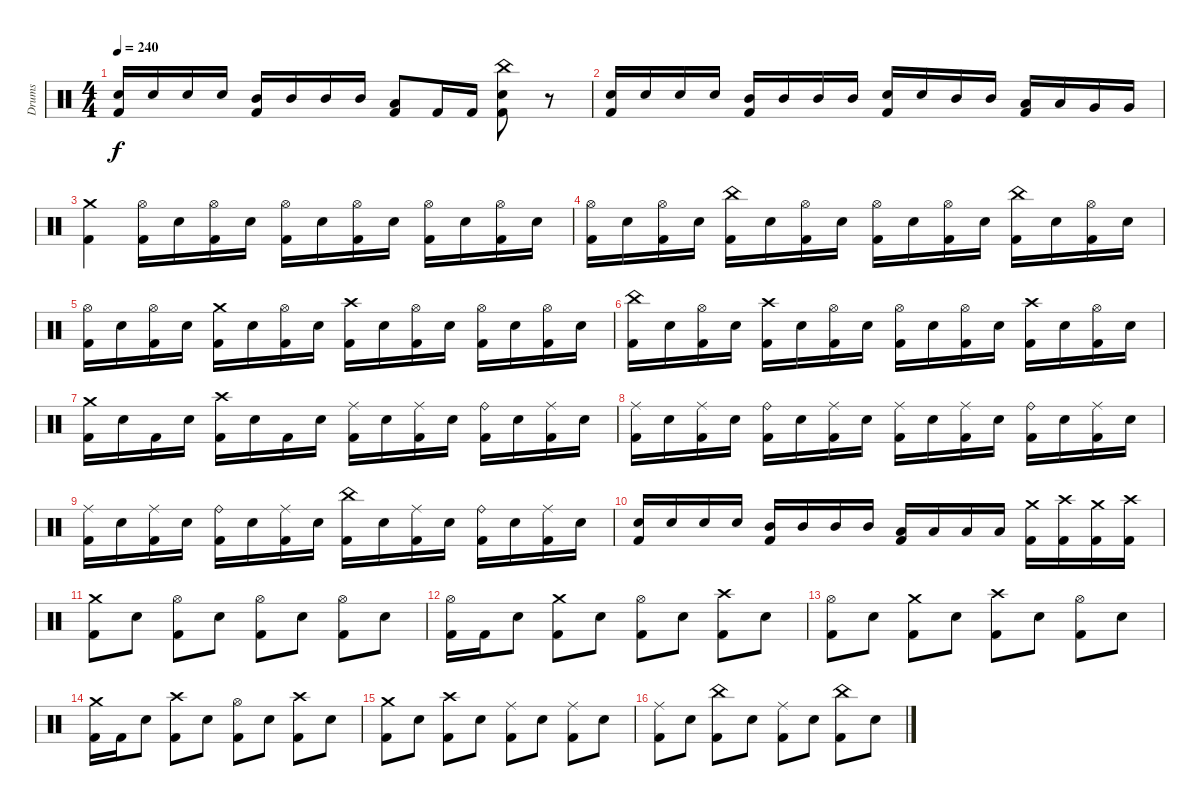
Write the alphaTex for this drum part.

\track ("Drums" "Drums") {instrument percussion}
\staff {score}
\articulation defaults
\ts (4 4)
\tempo 240
\clef neutral
\ks c
("Electric Snare (hit)" "Kick (hit) 2").16{dy f} "Electric Snare (hit)".16 "Electric Snare (hit)".16 "Electric Snare (hit)".16 ("Mid Tom (hit)" "Kick (hit) 2").16 "Mid Tom (hit)".16 "Mid Tom (hit)".16 "Mid Tom (hit)".16 ("Low Tom (hit)" "Kick (hit) 2").8 "Kick (hit) 2".16 "Kick (hit) 2".16 ("China (hit)" "Electric Snare (hit)" "Kick (hit) 2").8 r.8 |
("Electric Snare (hit)" "Kick (hit) 2").16 "Electric Snare (hit)".16 "Electric Snare (hit)".16 "Electric Snare (hit)".16 ("Mid Tom (hit)" "Kick (hit) 2").16 "Mid Tom (hit)".16 "Mid Tom (hit)".16 "Mid Tom (hit)".16 ("Electric Snare (hit)" "Kick (hit) 2").16 "Electric Snare (hit)".16 "Mid Tom (hit)".16 "Mid Tom (hit)".16 ("Low Tom (hit)" "Kick (hit) 2").16 "Low Tom (hit)".16 "Very Low Tom (hit)".16 "Very Low Tom (hit)".16 |
("Crash medium (hit)" "Kick (hit) 2").4 ("Hi-Hat (open)" "Kick (hit) 2").16 "Electric Snare (hit)".16 ("Hi-Hat (open)" "Kick (hit) 2").16 "Electric Snare (hit)".16 ("Hi-Hat (open)" "Kick (hit) 2").16 "Electric Snare (hit)".16 ("Hi-Hat (open)" "Kick (hit) 2").16 "Electric Snare (hit)".16 ("Hi-Hat (open)" "Kick (hit) 2").16 "Electric Snare (hit)".16 ("Hi-Hat (open)" "Kick (hit) 2").16 "Electric Snare (hit)".16 |
("Hi-Hat (open)" "Kick (hit) 2").16 "Electric Snare (hit)".16 ("Hi-Hat (open)" "Kick (hit) 2").16 "Electric Snare (hit)".16 ("China (hit)" "Kick (hit) 2").16 "Electric Snare (hit)".16 ("Hi-Hat (open)" "Kick (hit) 2").16 "Electric Snare (hit)".16 ("Hi-Hat (open)" "Kick (hit) 2").16 "Electric Snare (hit)".16 ("Hi-Hat (open)" "Kick (hit) 2").16 "Electric Snare (hit)".16 ("China (hit)" "Kick (hit) 2").16 "Electric Snare (hit)".16 ("Hi-Hat (open)" "Kick (hit) 2").16 "Electric Snare (hit)".16 |
("Hi-Hat (open)" "Kick (hit) 2").16 "Electric Snare (hit)".16 ("Hi-Hat (open)" "Kick (hit) 2").16 "Electric Snare (hit)".16 ("Crash medium (hit)" "Kick (hit) 2").16 "Electric Snare (hit)".16 ("Hi-Hat (open)" "Kick (hit) 2").16 "Electric Snare (hit)".16 ("Crash high (hit)" "Kick (hit) 2").16 "Electric Snare (hit)".16 ("Hi-Hat (open)" "Kick (hit) 2").16 "Electric Snare (hit)".16 ("Hi-Hat (open)" "Kick (hit) 2").16 "Electric Snare (hit)".16 ("Hi-Hat (open)" "Kick (hit) 2").16 "Electric Snare (hit)".16 |
("China (hit)" "Kick (hit) 2").16 "Electric Snare (hit)".16 ("Hi-Hat (open)" "Kick (hit) 2").16 "Electric Snare (hit)".16 ("Crash high (hit)" "Kick (hit) 2").16 "Electric Snare (hit)".16 ("Hi-Hat (open)" "Kick (hit) 2").16 "Electric Snare (hit)".16 ("Hi-Hat (open)" "Kick (hit) 2").16 "Electric Snare (hit)".16 ("Hi-Hat (open)" "Kick (hit) 2").16 "Electric Snare (hit)".16 ("Crash high (hit)" "Kick (hit) 2").16 "Electric Snare (hit)".16 ("Hi-Hat (open)" "Kick (hit) 2").16 "Electric Snare (hit)".16 |
("Crash medium (hit)" "Kick (hit) 2").16 "Electric Snare (hit)".16 "Kick (hit) 2".16 "Electric Snare (hit)".16 ("Crash high (hit)" "Kick (hit) 2").16 "Electric Snare (hit)".16 "Kick (hit) 2".16 "Electric Snare (hit)".16 ("Ride (middle)" "Kick (hit) 2").16 "Electric Snare (hit)".16 ("Ride (middle)" "Kick (hit) 2").16 "Electric Snare (hit)".16 ("Ride (bell)" "Kick (hit) 2").16 "Electric Snare (hit)".16 ("Ride (middle)" "Kick (hit) 2").16 "Electric Snare (hit)".16 |
("Ride (middle)" "Kick (hit) 2").16 "Electric Snare (hit)".16 ("Ride (middle)" "Kick (hit) 2").16 "Electric Snare (hit)".16 ("Ride (bell)" "Kick (hit) 2").16 "Electric Snare (hit)".16 ("Ride (middle)" "Kick (hit) 2").16 "Electric Snare (hit)".16 ("Ride (middle)" "Kick (hit) 2").16 "Electric Snare (hit)".16 ("Ride (middle)" "Kick (hit) 2").16 "Electric Snare (hit)".16 ("Ride (bell)" "Kick (hit) 2").16 "Electric Snare (hit)".16 ("Ride (middle)" "Kick (hit) 2").16 "Electric Snare (hit)".16 |
("Ride (middle)" "Kick (hit) 2").16 "Electric Snare (hit)".16 ("Ride (middle)" "Kick (hit) 2").16 "Electric Snare (hit)".16 ("Ride (bell)" "Kick (hit) 2").16 "Electric Snare (hit)".16 ("Ride (middle)" "Kick (hit) 2").16 "Electric Snare (hit)".16 ("China (hit)" "Kick (hit) 2").16 "Electric Snare (hit)".16 ("Ride (middle)" "Kick (hit) 2").16 "Electric Snare (hit)".16 ("Ride (bell)" "Kick (hit) 2").16 "Electric Snare (hit)".16 ("Ride (middle)" "Kick (hit) 2").16 "Electric Snare (hit)".16 |
("Electric Snare (hit)" "Kick (hit) 2").16 "Electric Snare (hit)".16 "Electric Snare (hit)".16 "Electric Snare (hit)".16 ("Mid Tom (hit)" "Kick (hit) 2").16 "Mid Tom (hit)".16 "Mid Tom (hit)".16 "Mid Tom (hit)".16 ("Low Tom (hit)" "Kick (hit) 2").16 "Low Tom (hit)".16 "Low Tom (hit)".16 "Low Tom (hit)".16 ("Crash medium (hit)" "Kick (hit) 2").16 ("Crash high (hit)" "Kick (hit) 2").16 ("Crash medium (hit)" "Kick (hit) 2").16 ("Crash high (hit)" "Kick (hit) 2").16 |
("Crash medium (hit)" "Kick (hit) 2").8 "Electric Snare (hit)".8 ("Hi-Hat (open)" "Kick (hit) 2").8 "Electric Snare (hit)".8 ("Hi-Hat (open)" "Kick (hit) 2").8 "Electric Snare (hit)".8 ("Hi-Hat (open)" "Kick (hit) 2").8 "Electric Snare (hit)".8 |
("Hi-Hat (open)" "Kick (hit) 2").16 "Kick (hit) 2".16 "Electric Snare (hit)".8 ("Crash medium (hit)" "Kick (hit) 2").8 "Electric Snare (hit)".8 ("Hi-Hat (open)" "Kick (hit) 2").8 "Electric Snare (hit)".8 ("Crash high (hit)" "Kick (hit) 2").8 "Electric Snare (hit)".8 |
("Hi-Hat (open)" "Kick (hit) 2").8 "Electric Snare (hit)".8 ("Crash medium (hit)" "Kick (hit) 2").8 "Electric Snare (hit)".8 ("Crash high (hit)" "Kick (hit) 2").8 "Electric Snare (hit)".8 ("Hi-Hat (open)" "Kick (hit) 2").8 "Electric Snare (hit)".8 |
("Crash medium (hit)" "Kick (hit) 2").16 "Kick (hit) 2".16 "Electric Snare (hit)".8 ("Crash high (hit)" "Kick (hit) 2").8 "Electric Snare (hit)".8 ("Hi-Hat (open)" "Kick (hit) 2").8 "Electric Snare (hit)".8 ("Crash high (hit)" "Kick (hit) 2").8 "Electric Snare (hit)".8 |
("Crash medium (hit)" "Kick (hit) 2").8 "Electric Snare (hit)".8 ("Crash high (hit)" "Kick (hit) 2").8 "Electric Snare (hit)".8 ("Ride (middle)" "Kick (hit) 2").8 "Electric Snare (hit)".8 ("Ride (middle)" "Kick (hit) 2").8 "Electric Snare (hit)".8 |
("Ride (middle)" "Kick (hit) 2").8 "Electric Snare (hit)".8 ("China (hit)" "Kick (hit) 2").8 "Electric Snare (hit)".8 ("Ride (middle)" "Kick (hit) 2").8 "Electric Snare (hit)".8 ("China (hit)" "Kick (hit) 2").8 "Electric Snare (hit)".8
